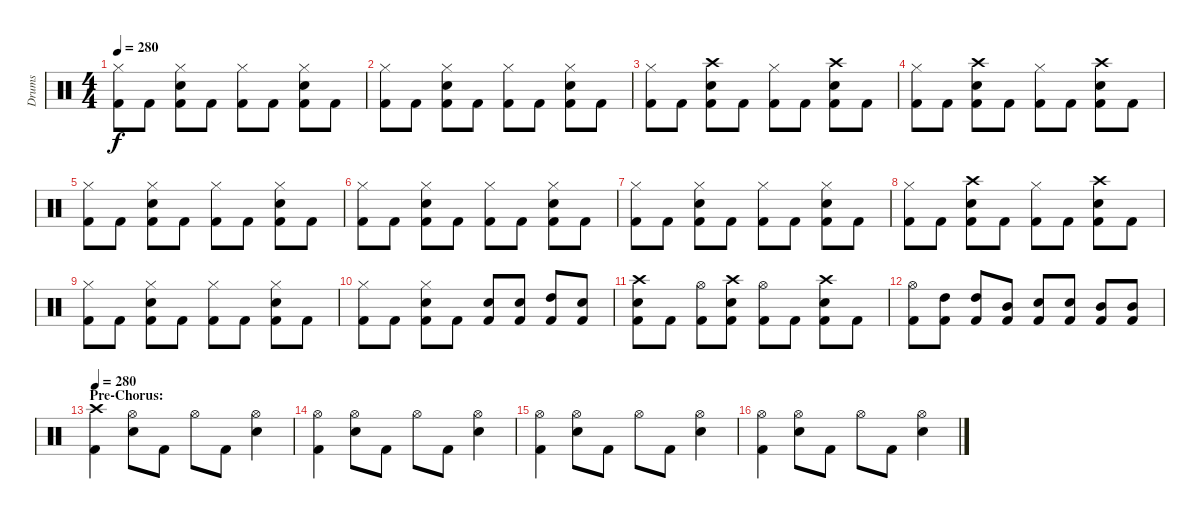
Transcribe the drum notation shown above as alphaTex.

\track ("Drums" "Drums") {instrument percussion}
\staff {score}
\articulation defaults
\ts (4 4)
\tempo 280
\clef neutral
\ks c
("Hi-Hat (closed)" "Kick (hit) 2").8{dy f} "Kick (hit) 2".8 ("Hi-Hat (closed)" "Snare (hit) 2" "Kick (hit) 2").8 "Kick (hit) 2".8 ("Hi-Hat (closed)" "Kick (hit) 2").8 "Kick (hit) 2".8 ("Hi-Hat (closed)" "Snare (hit) 2" "Kick (hit) 2").8 "Kick (hit) 2".8 |
("Hi-Hat (closed)" "Kick (hit) 2").8 "Kick (hit) 2".8 ("Hi-Hat (closed)" "Snare (hit) 2" "Kick (hit) 2").8 "Kick (hit) 2".8 ("Hi-Hat (closed)" "Kick (hit) 2").8 "Kick (hit) 2".8 ("Hi-Hat (closed)" "Snare (hit) 2" "Kick (hit) 2").8 "Kick (hit) 2".8 |
("Hi-Hat (closed)" "Kick (hit) 2").8 "Kick (hit) 2".8 ("Crash high (hit)" "Snare (hit) 2" "Kick (hit) 2").8 "Kick (hit) 2".8 ("Hi-Hat (closed)" "Kick (hit) 2").8 "Kick (hit) 2".8 ("Crash high (hit)" "Snare (hit) 2" "Kick (hit) 2").8 "Kick (hit) 2".8 |
("Hi-Hat (closed)" "Kick (hit) 2").8 "Kick (hit) 2".8 ("Crash high (hit)" "Snare (hit) 2" "Kick (hit) 2").8 "Kick (hit) 2".8 ("Hi-Hat (closed)" "Kick (hit) 2").8 "Kick (hit) 2".8 ("Crash high (hit)" "Snare (hit) 2" "Kick (hit) 2").8 "Kick (hit) 2".8 |
("Hi-Hat (closed)" "Kick (hit) 2").8 "Kick (hit) 2".8 ("Hi-Hat (closed)" "Snare (hit) 2" "Kick (hit) 2").8 "Kick (hit) 2".8 ("Hi-Hat (closed)" "Kick (hit) 2").8 "Kick (hit) 2".8 ("Hi-Hat (closed)" "Snare (hit) 2" "Kick (hit) 2").8 "Kick (hit) 2".8 |
("Hi-Hat (closed)" "Kick (hit) 2").8 "Kick (hit) 2".8 ("Hi-Hat (closed)" "Snare (hit) 2" "Kick (hit) 2").8 "Kick (hit) 2".8 ("Hi-Hat (closed)" "Kick (hit) 2").8 "Kick (hit) 2".8 ("Hi-Hat (closed)" "Snare (hit) 2" "Kick (hit) 2").8 "Kick (hit) 2".8 |
("Hi-Hat (closed)" "Kick (hit) 2").8 "Kick (hit) 2".8 ("Hi-Hat (closed)" "Snare (hit) 2" "Kick (hit) 2").8 "Kick (hit) 2".8 ("Hi-Hat (closed)" "Kick (hit) 2").8 "Kick (hit) 2".8 ("Hi-Hat (closed)" "Snare (hit) 2" "Kick (hit) 2").8 "Kick (hit) 2".8 |
("Hi-Hat (closed)" "Kick (hit) 2").8 "Kick (hit) 2".8 ("Crash high (hit)" "Snare (hit) 2" "Kick (hit) 2").8 "Kick (hit) 2".8 ("Hi-Hat (closed)" "Kick (hit) 2").8 "Kick (hit) 2".8 ("Crash high (hit)" "Snare (hit) 2" "Kick (hit) 2").8 "Kick (hit) 2".8 |
("Hi-Hat (closed)" "Kick (hit) 2").8 "Kick (hit) 2".8 ("Hi-Hat (closed)" "Snare (hit) 2" "Kick (hit) 2").8 "Kick (hit) 2".8 ("Hi-Hat (closed)" "Kick (hit) 2").8 "Kick (hit) 2".8 ("Hi-Hat (closed)" "Snare (hit) 2" "Kick (hit) 2").8 "Kick (hit) 2".8 |
("Hi-Hat (closed)" "Kick (hit) 2").8 "Kick (hit) 2".8 ("Hi-Hat (closed)" "Snare (hit) 2" "Kick (hit) 2").8 "Kick (hit) 2".8 ("Snare (hit) 2" "Kick (hit) 2").8 ("Snare (hit) 2" "Kick (hit) 2").8 ("High Tom (hit)" "Kick (hit) 2").8 ("Snare (hit) 2" "Kick (hit) 2").8 |
("Crash high (hit)" "Snare (hit) 2" "Kick (hit) 2").8 "Kick (hit) 2".8 ("Hi-Hat (open)" "Kick (hit) 2").8 ("Crash high (hit)" "Snare (hit) 2" "Kick (hit) 2").8 ("Hi-Hat (open)" "Kick (hit) 2").8 "Kick (hit) 2".8 ("Crash high (hit)" "Snare (hit) 2" "Kick (hit) 2").8 "Kick (hit) 2".8 |
("Hi-Hat (open)" "Kick (hit) 2").8 ("High Tom (hit)" "Kick (hit) 2").8 ("High Tom (hit)" "Kick (hit) 2").8 ("Mid Tom (hit)" "Kick (hit) 2").8 ("Snare (hit) 2" "Kick (hit) 2").8 ("Snare (hit) 2" "Kick (hit) 2").8 ("Mid Tom (hit)" "Kick (hit) 2").8 ("Mid Tom (hit)" "Kick (hit) 2").8 |
\section ("" "Pre-Chorus:")
\tempo 280
("Crash high (hit)" "Kick (hit) 2").4 ("Hi-Hat (open)" "Snare (hit) 2").8 "Kick (hit) 2".8 "Hi-Hat (open)".8 "Kick (hit) 2".8 ("Hi-Hat (open)" "Snare (hit) 2").4 |
("Hi-Hat (open)" "Kick (hit) 2").4 ("Hi-Hat (open)" "Snare (hit) 2").8 "Kick (hit) 2".8 "Hi-Hat (open)".8 "Kick (hit) 2".8 ("Hi-Hat (open)" "Snare (hit) 2").4 |
("Hi-Hat (open)" "Kick (hit) 2").4 ("Hi-Hat (open)" "Snare (hit) 2").8 "Kick (hit) 2".8 "Hi-Hat (open)".8 "Kick (hit) 2".8 ("Hi-Hat (open)" "Snare (hit) 2").4 |
("Hi-Hat (open)" "Kick (hit) 2").4 ("Hi-Hat (open)" "Snare (hit) 2").8 "Kick (hit) 2".8 "Hi-Hat (open)".8 "Kick (hit) 2".8 ("Hi-Hat (open)" "Snare (hit) 2").4
